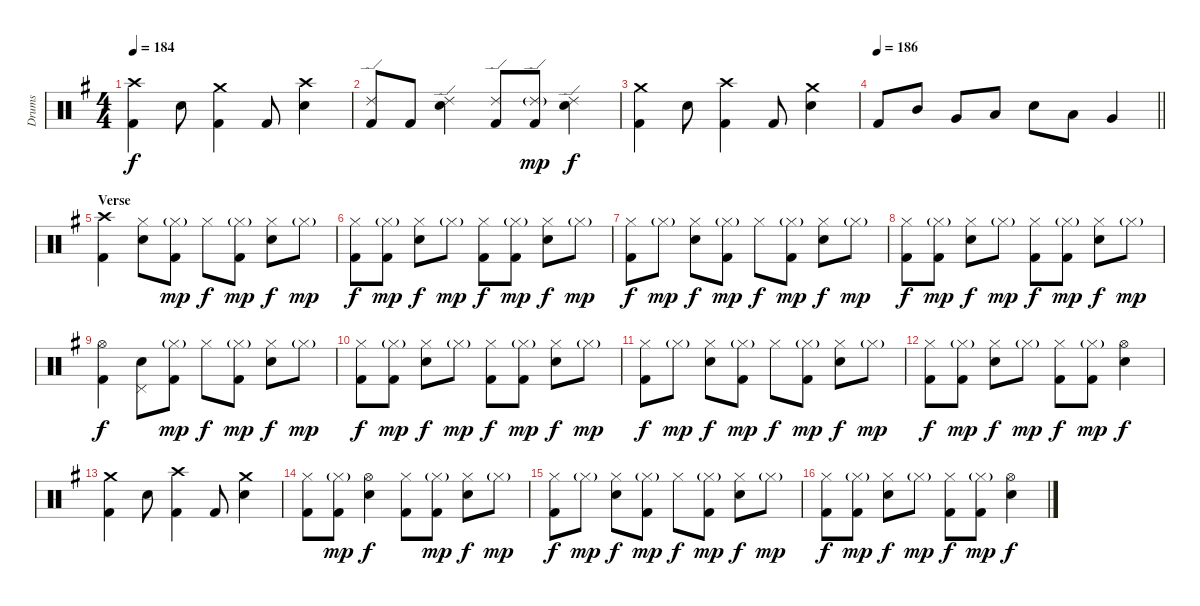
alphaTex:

\track ("Drums" "Drums") {instrument percussion}
\staff {score}
\articulation defaults
\ts (4 4)
\tempo 184
\clef neutral
\ks g
("Crash high (hit)" "Kick (hit) 2").4{dy f} "Snare (hit) 2".8 ("Crash medium (hit)" "Kick (hit) 2").4 "Kick (hit) 2".8 ("Crash high (hit)" "Snare (hit) 2").4 |
("Ride (edge) 2" "Kick (hit) 2").8 "Kick (hit) 2".8 ("Ride (edge) 2" "Snare (hit) 2").4 ("Ride (edge) 2" "Kick (hit) 2").8 ("Ride (edge) 2"{g} "Kick (hit) 2").8{dy mp} ("Ride (edge) 2" "Snare (hit) 2").4{dy f} |
("Crash medium (hit)" "Kick (hit) 2").4 "Snare (hit) 2".8 ("Crash high (hit)" "Kick (hit) 2").4 "Kick (hit) 2".8 ("Crash medium (hit)" "Snare (hit) 2").4 |
\tempo 186
\barLineRight lightlight "Kick (hit) 2".8 "Mid Tom (hit)".8 "Very Low Tom (hit)".8 "Low Tom (hit)".8 "Snare (hit) 2".8 "Low Tom (hit)".8 "Very Low Tom (hit)".4
|
\section ("" "Verse")
("Crash high (hit)" "Kick (hit) 2").4 ("Hi-Hat (closed)" "Snare (hit) 2").8 ("Hi-Hat (closed)"{g} "Kick (hit) 2").8{dy mp} "Hi-Hat (closed)".8{dy f} ("Hi-Hat (closed)"{g} "Kick (hit) 2").8{dy mp} ("Hi-Hat (closed)" "Snare (hit) 2").8{dy f} "Hi-Hat (closed)"{g}.8{dy mp} |
("Hi-Hat (closed)" "Kick (hit) 2").8{dy f} ("Hi-Hat (closed)"{g} "Kick (hit) 2").8{dy mp} ("Hi-Hat (closed)" "Snare (hit) 2").8{dy f} "Hi-Hat (closed)"{g}.8{dy mp} ("Hi-Hat (closed)" "Kick (hit) 2").8{dy f} ("Hi-Hat (closed)"{g} "Kick (hit) 2").8{dy mp} ("Hi-Hat (closed)" "Snare (hit) 2").8{dy f} "Hi-Hat (closed)"{g}.8{dy mp} |
("Hi-Hat (closed)" "Kick (hit) 2").8{dy f} "Hi-Hat (closed)"{g}.8{dy mp} ("Hi-Hat (closed)" "Snare (hit) 2").8{dy f} ("Hi-Hat (closed)"{g} "Kick (hit) 2").8{dy mp} "Hi-Hat (closed)".8{dy f} ("Hi-Hat (closed)"{g} "Kick (hit) 2").8{dy mp} ("Hi-Hat (closed)" "Snare (hit) 2").8{dy f} "Hi-Hat (closed)"{g}.8{dy mp} |
("Hi-Hat (closed)" "Kick (hit) 2").8{dy f} ("Hi-Hat (closed)"{g} "Kick (hit) 2").8{dy mp} ("Hi-Hat (closed)" "Snare (hit) 2").8{dy f} "Hi-Hat (closed)"{g}.8{dy mp} ("Hi-Hat (closed)" "Kick (hit) 2").8{dy f} ("Hi-Hat (closed)"{g} "Kick (hit) 2").8{dy mp} ("Hi-Hat (closed)" "Snare (hit) 2").8{dy f} "Hi-Hat (closed)"{g}.8{dy mp} |
("Hi-Hat (open)" "Kick (hit) 2").4{dy f} ("Pedal Hi-Hat (hit)" "Snare (hit) 2").8 ("Hi-Hat (closed)"{g} "Kick (hit) 2").8{dy mp} "Hi-Hat (closed)".8{dy f} ("Hi-Hat (closed)"{g} "Kick (hit) 2").8{dy mp} ("Hi-Hat (closed)" "Snare (hit) 2").8{dy f} "Hi-Hat (closed)"{g}.8{dy mp} |
("Hi-Hat (closed)" "Kick (hit) 2").8{dy f} ("Hi-Hat (closed)"{g} "Kick (hit) 2").8{dy mp} ("Hi-Hat (closed)" "Snare (hit) 2").8{dy f} "Hi-Hat (closed)"{g}.8{dy mp} ("Hi-Hat (closed)" "Kick (hit) 2").8{dy f} ("Hi-Hat (closed)"{g} "Kick (hit) 2").8{dy mp} ("Hi-Hat (closed)" "Snare (hit) 2").8{dy f} "Hi-Hat (closed)"{g}.8{dy mp} |
("Hi-Hat (closed)" "Kick (hit) 2").8{dy f} "Hi-Hat (closed)"{g}.8{dy mp} ("Hi-Hat (closed)" "Snare (hit) 2").8{dy f} ("Hi-Hat (closed)"{g} "Kick (hit) 2").8{dy mp} "Hi-Hat (closed)".8{dy f} ("Hi-Hat (closed)"{g} "Kick (hit) 2").8{dy mp} ("Hi-Hat (closed)" "Snare (hit) 2").8{dy f} "Hi-Hat (closed)"{g}.8{dy mp} |
("Hi-Hat (closed)" "Kick (hit) 2").8{dy f} ("Hi-Hat (closed)"{g} "Kick (hit) 2").8{dy mp} ("Hi-Hat (closed)" "Snare (hit) 2").8{dy f} "Hi-Hat (closed)"{g}.8{dy mp} ("Hi-Hat (closed)" "Kick (hit) 2").8{dy f} ("Hi-Hat (closed)"{g} "Kick (hit) 2").8{dy mp} ("Hi-Hat (open)" "Snare (hit) 2").4{dy f} |
("Crash medium (hit)" "Kick (hit) 2").4 "Snare (hit) 2".8 ("Crash high (hit)" "Kick (hit) 2").4 "Kick (hit) 2".8 ("Crash medium (hit)" "Snare (hit) 2").4 |
("Hi-Hat (closed)" "Kick (hit) 2").8 ("Hi-Hat (closed)"{g} "Kick (hit) 2").8{dy mp} ("Hi-Hat (open)" "Snare (hit) 2").4{dy f} ("Hi-Hat (closed)" "Kick (hit) 2").8 ("Hi-Hat (closed)"{g} "Kick (hit) 2").8{dy mp} ("Hi-Hat (closed)" "Snare (hit) 2").8{dy f} "Hi-Hat (closed)"{g}.8{dy mp} |
("Hi-Hat (closed)" "Kick (hit) 2").8{dy f} "Hi-Hat (closed)"{g}.8{dy mp} ("Hi-Hat (closed)" "Snare (hit) 2").8{dy f} ("Hi-Hat (closed)"{g} "Kick (hit) 2").8{dy mp} "Hi-Hat (closed)".8{dy f} ("Hi-Hat (closed)"{g} "Kick (hit) 2").8{dy mp} ("Hi-Hat (closed)" "Snare (hit) 2").8{dy f} "Hi-Hat (closed)"{g}.8{dy mp} |
("Hi-Hat (closed)" "Kick (hit) 2").8{dy f} ("Hi-Hat (closed)"{g} "Kick (hit) 2").8{dy mp} ("Hi-Hat (closed)" "Snare (hit) 2").8{dy f} "Hi-Hat (closed)"{g}.8{dy mp} ("Hi-Hat (closed)" "Kick (hit) 2").8{dy f} ("Hi-Hat (closed)"{g} "Kick (hit) 2").8{dy mp} ("Hi-Hat (open)" "Snare (hit) 2").4{dy f}
